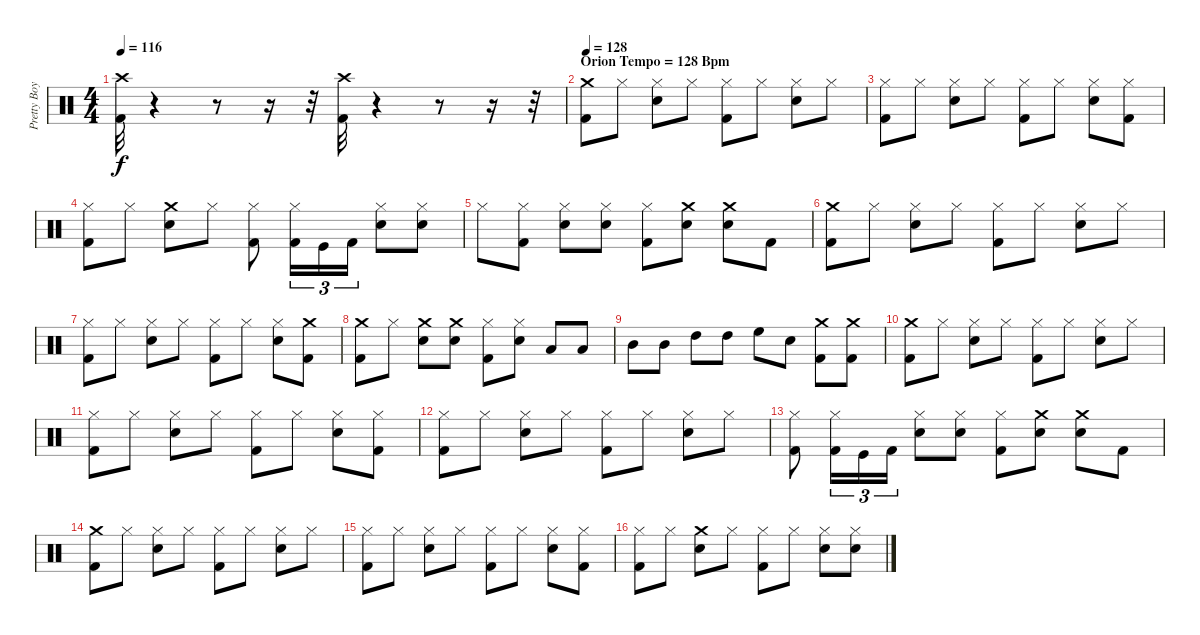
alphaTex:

\track ("Pretty Boy Geoff (Lars Drums)" "Pretty Boy") {instrument percussion}
\staff {score}
\articulation defaults
\ts (4 4)
\tempo 116
\clef neutral
\ks c
("Kick (hit) 2" "Crash high (hit)").32{dy f} r.4 r.8 r.16 r.32 ("Kick (hit) 2" "Crash high (hit)").32 r.4 r.8 r.16 r.32 |
\section ("" "Orion Tempo = 128 Bpm")
\tempo 128
("Crash medium (hit)" "Kick (hit) 2").8 "Hi-Hat (closed)".8 ("Snare (hit) 2" "Hi-Hat (closed)").8 "Hi-Hat (closed)".8 ("Hi-Hat (closed)" "Kick (hit) 2").8 "Hi-Hat (closed)".8 ("Snare (hit) 2" "Hi-Hat (closed)").8 "Hi-Hat (closed)".8 |
("Hi-Hat (closed)" "Kick (hit) 2").8 "Hi-Hat (closed)".8 ("Snare (hit) 2" "Hi-Hat (closed)").8 "Hi-Hat (closed)".8 ("Hi-Hat (closed)" "Kick (hit) 2").8 "Hi-Hat (closed)".8 ("Snare (hit) 2" "Hi-Hat (closed)").8 ("Hi-Hat (closed)" "Kick (hit) 2").8 |
("Kick (hit) 2" "Hi-Hat (closed)").8 "Hi-Hat (closed)".8 ("Crash medium (hit)" "Snare (hit) 2").8 "Hi-Hat (closed)".8 ("Kick (hit) 2" "Hi-Hat (closed)").8 ("Kick (hit) 2" "Hi-Hat (closed)").16{tu (3 2)} "Kick (hit)".16{tu (3 2)} "Kick (hit) 2".16{tu (3 2)} ("Snare (hit) 2" "Hi-Hat (closed)").8 ("Snare (hit) 2" "Hi-Hat (closed)").8 |
"Hi-Hat (closed)".8 ("Kick (hit) 2" "Hi-Hat (closed)").8 ("Snare (hit) 2" "Hi-Hat (closed)").8 ("Hi-Hat (closed)" "Snare (hit) 2").8 ("Kick (hit) 2" "Hi-Hat (closed)").8 ("Crash medium (hit)" "Snare (hit) 2").8 ("Snare (hit) 2" "Crash medium (hit)").8 "Kick (hit) 2".8 |
("Crash medium (hit)" "Kick (hit) 2").8 "Hi-Hat (closed)".8 ("Snare (hit) 2" "Hi-Hat (closed)").8 "Hi-Hat (closed)".8 ("Hi-Hat (closed)" "Kick (hit) 2").8 "Hi-Hat (closed)".8 ("Snare (hit) 2" "Hi-Hat (closed)").8 "Hi-Hat (closed)".8 |
("Hi-Hat (closed)" "Kick (hit) 2").8 "Hi-Hat (closed)".8 ("Snare (hit) 2" "Hi-Hat (closed)").8 "Hi-Hat (closed)".8 ("Hi-Hat (closed)" "Kick (hit) 2").8 "Hi-Hat (closed)".8 ("Snare (hit) 2" "Hi-Hat (closed)").8 ("Crash medium (hit)" "Kick (hit) 2").8 |
("Crash medium (hit)" "Kick (hit) 2").8 "Hi-Hat (closed)".8 ("Crash medium (hit)" "Snare (hit) 2").8 ("Crash medium (hit)" "Snare (hit) 2").8 ("Hi-Hat (closed)" "Kick (hit) 2").8 ("Snare (hit) 2" "Hi-Hat (closed)").8 "Low Tom (hit)".8 "Low Tom (hit)".8 |
"Mid Tom (hit)".8 "Mid Tom (hit)".8 "High Tom (hit)".8 "High Tom (hit)".8 "High Floor Tom (hit)".8 "Snare (hit) 2".8 ("Crash medium (hit)" "Kick (hit) 2").8 ("Crash medium (hit)" "Kick (hit) 2").8 |
("Crash medium (hit)" "Kick (hit) 2").8 "Hi-Hat (closed)".8 ("Snare (hit) 2" "Hi-Hat (closed)").8 "Hi-Hat (closed)".8 ("Hi-Hat (closed)" "Kick (hit) 2").8 "Hi-Hat (closed)".8 ("Snare (hit) 2" "Hi-Hat (closed)").8 "Hi-Hat (closed)".8 |
("Hi-Hat (closed)" "Kick (hit) 2").8 "Hi-Hat (closed)".8 ("Snare (hit) 2" "Hi-Hat (closed)").8 "Hi-Hat (closed)".8 ("Hi-Hat (closed)" "Kick (hit) 2").8 "Hi-Hat (closed)".8 ("Snare (hit) 2" "Hi-Hat (closed)").8 ("Hi-Hat (closed)" "Kick (hit) 2").8 |
("Hi-Hat (closed)" "Kick (hit) 2").8 "Hi-Hat (closed)".8 ("Snare (hit) 2" "Hi-Hat (closed)").8 "Hi-Hat (closed)".8 ("Hi-Hat (closed)" "Kick (hit) 2").8 "Hi-Hat (closed)".8 ("Snare (hit) 2" "Hi-Hat (closed)").8 "Hi-Hat (closed)".8 |
("Kick (hit) 2" "Hi-Hat (closed)").8 ("Kick (hit) 2" "Hi-Hat (closed)").16{tu (3 2)} "Kick (hit)".16{tu (3 2)} "Kick (hit) 2".16{tu (3 2)} ("Snare (hit) 2" "Hi-Hat (closed)").8 ("Snare (hit) 2" "Hi-Hat (closed)").8 ("Kick (hit) 2" "Hi-Hat (closed)").8 ("Crash medium (hit)" "Snare (hit) 2").8 ("Snare (hit) 2" "Crash medium (hit)").8 "Kick (hit) 2".8 |
("Crash medium (hit)" "Kick (hit) 2").8 "Hi-Hat (closed)".8 ("Snare (hit) 2" "Hi-Hat (closed)").8 "Hi-Hat (closed)".8 ("Hi-Hat (closed)" "Kick (hit) 2").8 "Hi-Hat (closed)".8 ("Snare (hit) 2" "Hi-Hat (closed)").8 "Hi-Hat (closed)".8 |
("Hi-Hat (closed)" "Kick (hit) 2").8 "Hi-Hat (closed)".8 ("Snare (hit) 2" "Hi-Hat (closed)").8 "Hi-Hat (closed)".8 ("Hi-Hat (closed)" "Kick (hit) 2").8 "Hi-Hat (closed)".8 ("Snare (hit) 2" "Hi-Hat (closed)").8 ("Hi-Hat (closed)" "Kick (hit) 2").8 |
("Hi-Hat (closed)" "Kick (hit) 2").8 "Hi-Hat (closed)".8 ("Crash medium (hit)" "Snare (hit) 2").8 "Hi-Hat (closed)".8 ("Hi-Hat (closed)" "Kick (hit) 2").8 "Hi-Hat (closed)".8 ("Snare (hit) 2" "Hi-Hat (closed)").8 ("Snare (hit) 2" "Hi-Hat (closed)").8
